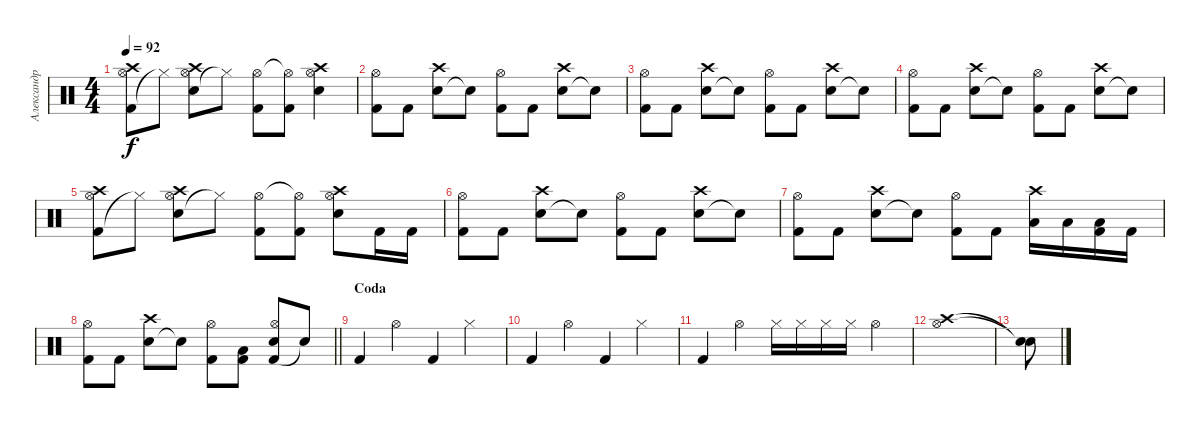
\track ("Александр Барзилович" "Александр ") {instrument percussion}
\staff {score}
\articulation defaults
\ts (4 4)
\tempo 92
\clef neutral
\ks c
("Kick (hit) 2" "Hi-Hat (open)" "Crash high (hit)").8{dy f} "Hi-Hat (closed)"{t}.8 ("Electric Snare (hit)" "Hi-Hat (open)" "Crash high (hit)").8 "Hi-Hat (closed)"{t}.8 ("Kick (hit) 2" "Hi-Hat (open)").8 ("Kick (hit) 2" "Hi-Hat (open)"{t}).8 ("Electric Snare (hit)" "Hi-Hat (open)" "Crash high (hit)").4 |
("Kick (hit) 2" "Hi-Hat (open)").8 "Kick (hit) 2".8 ("Electric Snare (hit)" "Crash high (hit)").8 "Snare (hit)"{t}.8 ("Kick (hit) 2" "Hi-Hat (open)").8 "Kick (hit) 2".8 ("Electric Snare (hit)" "Crash high (hit)").8 "Snare (hit)"{t}.8 |
("Kick (hit) 2" "Hi-Hat (open)").8 "Kick (hit) 2".8 ("Electric Snare (hit)" "Crash high (hit)").8 "Snare (hit)"{t}.8 ("Kick (hit) 2" "Hi-Hat (open)").8 "Kick (hit) 2".8 ("Electric Snare (hit)" "Crash high (hit)").8 "Snare (hit)"{t}.8 |
("Kick (hit) 2" "Hi-Hat (open)").8 "Kick (hit) 2".8 ("Electric Snare (hit)" "Crash high (hit)").8 "Snare (hit)"{t}.8 ("Kick (hit) 2" "Hi-Hat (open)").8 "Kick (hit) 2".8 ("Electric Snare (hit)" "Crash high (hit)").8 "Snare (hit)"{t}.8 |
("Kick (hit) 2" "Hi-Hat (open)" "Crash high (hit)").8 "Hi-Hat (closed)"{t}.8 ("Electric Snare (hit)" "Hi-Hat (open)" "Crash high (hit)").8 "Hi-Hat (closed)"{t}.8 ("Kick (hit) 2" "Hi-Hat (open)").8 ("Kick (hit) 2" "Hi-Hat (open)"{t}).8 ("Electric Snare (hit)" "Hi-Hat (open)" "Crash high (hit)").8 "Kick (hit) 2".16 "Kick (hit) 2".16 |
("Kick (hit) 2" "Hi-Hat (open)").8 "Kick (hit) 2".8 ("Electric Snare (hit)" "Crash high (hit)").8 "Snare (hit)"{t}.8 ("Kick (hit) 2" "Hi-Hat (open)").8 "Kick (hit) 2".8 ("Electric Snare (hit)" "Crash high (hit)").8 "Snare (hit)"{t}.8 |
("Kick (hit) 2" "Hi-Hat (open)").8 "Kick (hit) 2".8 ("Electric Snare (hit)" "Crash high (hit)").8 "Snare (hit)"{t}.8 ("Kick (hit) 2" "Hi-Hat (open)").8 "Kick (hit) 2".8 ("Low Tom (hit)" "Crash high (hit)").16 "Low Tom (hit)".16 ("Kick (hit) 2" "Low Tom (hit)").16 "Kick (hit) 2".16 |
\barLineRight lightlight
("Kick (hit) 2" "Hi-Hat (open)").8 "Kick (hit) 2".8 ("Electric Snare (hit)" "Crash high (hit)").8 "Snare (hit)"{t}.8 ("Kick (hit) 2" "Hi-Hat (open)").8 ("Kick (hit) 2" "Low Tom (hit)").8 ("Kick (hit) 2" "Electric Snare (hit)" "Hi-Hat (open)").8 "Snare (hit)"{t}.8 |
\section ("" "Coda")
"Kick (hit) 2".4 "Hi-Hat (open)".4 "Kick (hit) 2".4 "Hi-Hat (closed)".4 |
"Kick (hit) 2".4 "Hi-Hat (open)".4 "Kick (hit) 2".4 "Hi-Hat (closed)".4 |
"Kick (hit) 2".4 "Hi-Hat (open)".4 "Hi-Hat (closed)".16 "Hi-Hat (closed)".16 "Hi-Hat (closed)".16 "Hi-Hat (closed)".16 "Hi-Hat (open)".4 |
("Hi-Hat (open)" "Crash high (hit)").1 |
("Snare (hit)"{t} "Snare (hit)"{t}).8
